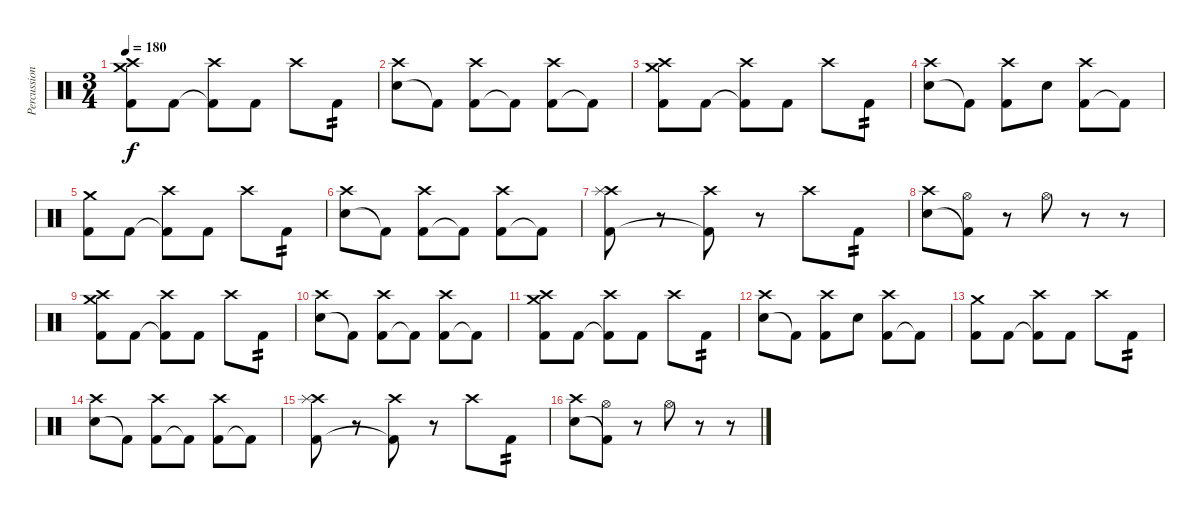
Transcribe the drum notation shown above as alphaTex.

\track ("Percussion" "Percussion") {instrument percussion}
\staff {score}
\articulation defaults
\ts (3 4)
\tempo 180
\clef neutral
\ks c
("Kick (hit) 2" "Crash medium (hit)" "Crash high (hit)").8{dy f} "Kick (hit) 2".8 ("Kick (hit) 2"{t} "Crash high (hit)").8 "Kick (hit) 2".8 "Crash high (hit)".8 "Kick (hit) 2".8{tp 2} |
("Snare (hit) 2" "Crash high (hit)").8 "Kick (hit) 2"{t}.8 ("Kick (hit) 2" "Crash high (hit)").8 "Kick (hit) 2"{t}.8 ("Kick (hit) 2" "Crash high (hit)").8 "Kick (hit) 2"{t}.8 |
("Kick (hit) 2" "Crash high (hit)" "Crash medium (hit)").8 "Kick (hit) 2".8 ("Kick (hit) 2"{t} "Crash high (hit)").8 "Kick (hit) 2".8 "Crash high (hit)".8 "Kick (hit) 2".8{tp 2} |
("Snare (hit) 2" "Crash high (hit)").8 "Kick (hit) 2"{t}.8 ("Kick (hit) 2" "Crash high (hit)").8 "Snare (hit) 2".8 ("Kick (hit) 2" "Crash high (hit)").8 "Kick (hit) 2"{t}.8 |
("Kick (hit) 2" "Crash medium (hit)").8 "Kick (hit) 2".8 ("Kick (hit) 2"{t} "Crash high (hit)").8 "Kick (hit) 2".8 "Crash high (hit)".8 "Kick (hit) 2".8{tp 2} |
("Snare (hit) 2" "Crash high (hit)").8 "Kick (hit) 2"{t}.8 ("Kick (hit) 2" "Crash high (hit)").8 "Kick (hit) 2"{t}.8 ("Kick (hit) 2" "Crash high (hit)").8 "Kick (hit) 2"{t}.8 |
("Kick (hit) 2" "Crash high (hit)" "Splash (hit)").8 r.8 ("Kick (hit) 2"{t} "Crash high (hit)").8 r.8 "Crash high (hit)".8 "Kick (hit) 2".8{tp 2} |
("Snare (hit) 2" "Crash high (hit)").8 ("Kick (hit) 2"{t} "Hi-Hat (open)").8 r.8 "Hi-Hat (open)".8 r.8 r.8 |
("Kick (hit) 2" "Crash medium (hit)" "Crash high (hit)").8 "Kick (hit) 2".8 ("Kick (hit) 2"{t} "Crash high (hit)").8 "Kick (hit) 2".8 "Crash high (hit)".8 "Kick (hit) 2".8{tp 2} |
("Snare (hit) 2" "Crash high (hit)").8 "Kick (hit) 2"{t}.8 ("Kick (hit) 2" "Crash high (hit)").8 "Kick (hit) 2"{t}.8 ("Kick (hit) 2" "Crash high (hit)").8 "Kick (hit) 2"{t}.8 |
("Kick (hit) 2" "Crash high (hit)" "Crash medium (hit)").8 "Kick (hit) 2".8 ("Kick (hit) 2"{t} "Crash high (hit)").8 "Kick (hit) 2".8 "Crash high (hit)".8 "Kick (hit) 2".8{tp 2} |
("Snare (hit) 2" "Crash high (hit)").8 "Kick (hit) 2"{t}.8 ("Kick (hit) 2" "Crash high (hit)").8 "Snare (hit) 2".8 ("Kick (hit) 2" "Crash high (hit)").8 "Kick (hit) 2"{t}.8 |
("Kick (hit) 2" "Crash medium (hit)").8 "Kick (hit) 2".8 ("Kick (hit) 2"{t} "Crash high (hit)").8 "Kick (hit) 2".8 "Crash high (hit)".8 "Kick (hit) 2".8{tp 2} |
("Snare (hit) 2" "Crash high (hit)").8 "Kick (hit) 2"{t}.8 ("Kick (hit) 2" "Crash high (hit)").8 "Kick (hit) 2"{t}.8 ("Kick (hit) 2" "Crash high (hit)").8 "Kick (hit) 2"{t}.8 |
("Kick (hit) 2" "Crash high (hit)" "Splash (hit)").8 r.8 ("Kick (hit) 2"{t} "Crash high (hit)").8 r.8 "Crash high (hit)".8 "Kick (hit) 2".8{tp 2} |
("Snare (hit) 2" "Crash high (hit)").8 ("Kick (hit) 2"{t} "Hi-Hat (open)").8 r.8 "Hi-Hat (open)".8 r.8 r.8
